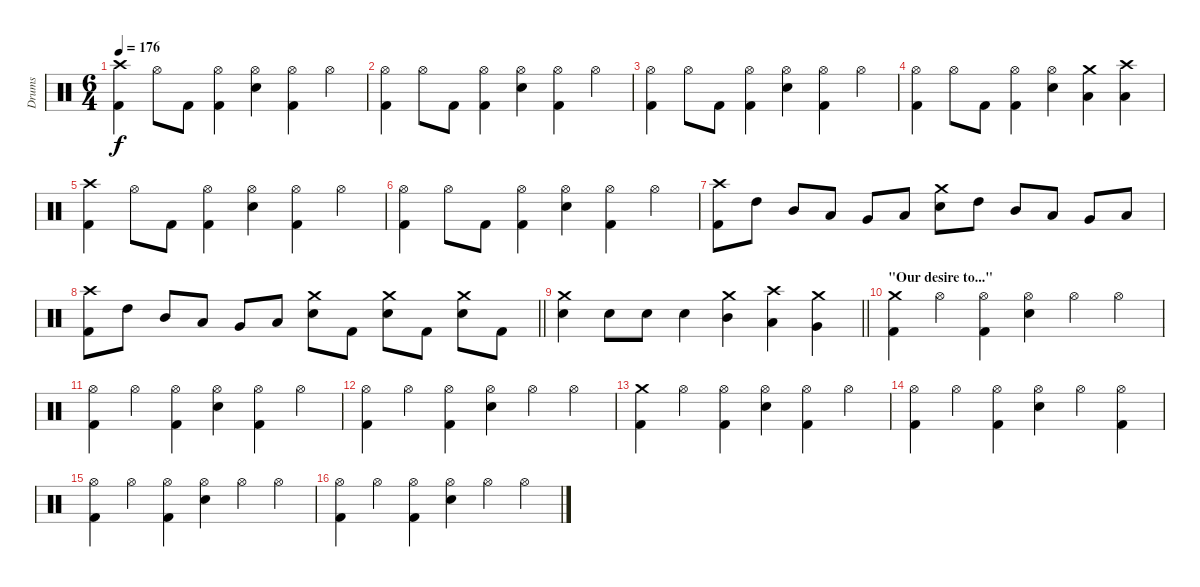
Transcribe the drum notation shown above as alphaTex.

\track ("Drums" "Drums") {instrument percussion}
\staff {score}
\articulation defaults
\ts (6 4)
\section ("" "")
\tempo 176
\clef neutral
\ks c
("Crash high (hit)" "Kick (hit) 2").4{dy f} "Hi-Hat (open)".8 "Kick (hit) 2".8 ("Hi-Hat (open)" "Kick (hit) 2").4 ("Hi-Hat (open)" "Snare (hit) 2").4 ("Hi-Hat (open)" "Kick (hit) 2").4 "Hi-Hat (open)".4 |
("Hi-Hat (open)" "Kick (hit) 2").4 "Hi-Hat (open)".8 "Kick (hit) 2".8 ("Hi-Hat (open)" "Kick (hit) 2").4 ("Hi-Hat (open)" "Snare (hit) 2").4 ("Hi-Hat (open)" "Kick (hit) 2").4 "Hi-Hat (open)".4 |
("Hi-Hat (open)" "Kick (hit) 2").4 "Hi-Hat (open)".8 "Kick (hit) 2".8 ("Hi-Hat (open)" "Kick (hit) 2").4 ("Hi-Hat (open)" "Snare (hit) 2").4 ("Hi-Hat (open)" "Kick (hit) 2").4 "Hi-Hat (open)".4 |
("Hi-Hat (open)" "Kick (hit) 2").4 "Hi-Hat (open)".8 "Kick (hit) 2".8 ("Hi-Hat (open)" "Kick (hit) 2").4 ("Hi-Hat (open)" "Snare (hit) 2").4 ("Crash medium (hit)" "Low Tom (hit)").4 ("Crash high (hit)" "Low Floor Tom (hit)").4 |
("Crash high (hit)" "Kick (hit) 2").4 "Hi-Hat (open)".8 "Kick (hit) 2".8 ("Hi-Hat (open)" "Kick (hit) 2").4 ("Hi-Hat (open)" "Snare (hit) 2").4 ("Hi-Hat (open)" "Kick (hit) 2").4 "Hi-Hat (open)".4 |
("Hi-Hat (open)" "Kick (hit) 2").4 "Hi-Hat (open)".8 "Kick (hit) 2".8 ("Hi-Hat (open)" "Kick (hit) 2").4 ("Hi-Hat (open)" "Snare (hit) 2").4 ("Hi-Hat (open)" "Kick (hit) 2").4 "Hi-Hat (open)".4 |
("Crash high (hit)" "Kick (hit) 2").8 "High Tom (hit)".8 "Mid Tom (hit)".8 "Low Tom (hit)".8 "Very Low Tom (hit)".8 "Low Floor Tom (hit)".8 ("Crash medium (hit)" "Snare (hit) 2").8 "High Tom (hit)".8 "Mid Tom (hit)".8 "Low Tom (hit)".8 "Very Low Tom (hit)".8 "Low Floor Tom (hit)".8 |
\barLineRight lightlight
("Crash high (hit)" "Kick (hit) 2").8 "High Tom (hit)".8 "Mid Tom (hit)".8 "Low Tom (hit)".8 "Very Low Tom (hit)".8 "Low Floor Tom (hit)".8 ("Crash medium (hit)" "Snare (hit) 2").8 "Kick (hit) 2".8 ("Crash medium (hit)" "Snare (hit) 2").8 "Kick (hit) 2".8 ("Crash medium (hit)" "Snare (hit) 2").8 "Kick (hit) 2".8 |
\barLineRight lightlight
("Crash medium (hit)" "Snare (hit) 2").4 "Snare (hit) 2".8 "Snare (hit) 2".8 "Snare (hit) 2".4 ("Crash medium (hit)" "Mid Tom (hit)").4 ("Crash high (hit)" "Low Tom (hit)").4 ("Crash medium (hit)" "Very Low Tom (hit)").4 |
\section ("" "\"Our desire to...\"")
("Crash medium (hit)" "Kick (hit) 2").4 "Hi-Hat (open)".4 ("Hi-Hat (open)" "Kick (hit) 2").4 ("Hi-Hat (open)" "Snare (hit) 2").4 "Hi-Hat (open)".4 "Hi-Hat (open)".4 |
("Hi-Hat (open)" "Kick (hit) 2").4 "Hi-Hat (open)".4 ("Hi-Hat (open)" "Kick (hit) 2").4 ("Hi-Hat (open)" "Snare (hit) 2").4 ("Hi-Hat (open)" "Kick (hit) 2").4 "Hi-Hat (open)".4 |
("Hi-Hat (open)" "Kick (hit) 2").4 "Hi-Hat (open)".4 ("Hi-Hat (open)" "Kick (hit) 2").4 ("Hi-Hat (open)" "Snare (hit) 2").4 "Hi-Hat (open)".4 "Hi-Hat (open)".4 |
("Crash medium (hit)" "Kick (hit) 2").4 "Hi-Hat (open)".4 ("Hi-Hat (open)" "Kick (hit) 2").4 ("Hi-Hat (open)" "Snare (hit) 2").4 ("Hi-Hat (open)" "Kick (hit) 2").4 "Hi-Hat (open)".4 |
("Hi-Hat (open)" "Kick (hit) 2").4 "Hi-Hat (open)".4 ("Hi-Hat (open)" "Kick (hit) 2").4 ("Hi-Hat (open)" "Snare (hit) 2").4 "Hi-Hat (open)".4 ("Hi-Hat (open)" "Kick (hit) 2").4 |
("Hi-Hat (open)" "Kick (hit) 2").4 "Hi-Hat (open)".4 ("Hi-Hat (open)" "Kick (hit) 2").4 ("Hi-Hat (open)" "Snare (hit) 2").4 "Hi-Hat (open)".4 "Hi-Hat (open)".4 |
("Hi-Hat (open)" "Kick (hit) 2").4 "Hi-Hat (open)".4 ("Hi-Hat (open)" "Kick (hit) 2").4 ("Hi-Hat (open)" "Snare (hit) 2").4 "Hi-Hat (open)".4 "Hi-Hat (open)".4
